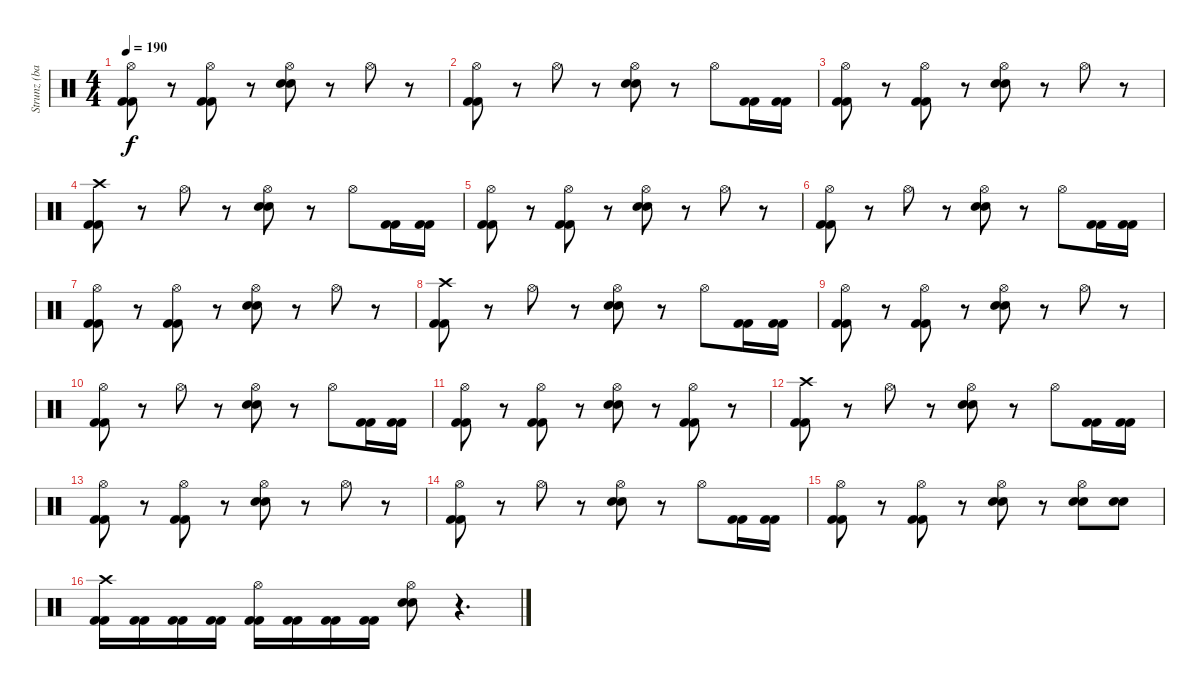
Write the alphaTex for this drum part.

\track ("Strunz (bateria)" "Strunz (ba") {instrument percussion}
\staff {score}
\articulation defaults
\ts (4 4)
\tempo 190
\clef neutral
\ks c
("Hi-Hat (open)" "Kick (hit) 2" "Kick (hit) 2").8{dy f} r.8 ("Hi-Hat (open)" "Kick (hit) 2" "Kick (hit) 2").8 r.8 ("Hi-Hat (open)" "Snare (hit) 2" "Snare (hit) 2").8 r.8 "Hi-Hat (open)".8 r.8 |
("Hi-Hat (open)" "Kick (hit) 2" "Kick (hit) 2").8 r.8 "Hi-Hat (open)".8 r.8 ("Hi-Hat (open)" "Snare (hit) 2" "Snare (hit) 2").8 r.8 "Hi-Hat (open)".8 ("Kick (hit) 2" "Kick (hit) 2").16 ("Kick (hit) 2" "Kick (hit) 2").16 |
("Hi-Hat (open)" "Kick (hit) 2" "Kick (hit) 2").8 r.8 ("Hi-Hat (open)" "Kick (hit) 2" "Kick (hit) 2").8 r.8 ("Hi-Hat (open)" "Snare (hit) 2" "Snare (hit) 2").8 r.8 "Hi-Hat (open)".8 r.8 |
("Crash high (hit)" "Kick (hit) 2" "Kick (hit) 2").8 r.8 "Hi-Hat (open)".8 r.8 ("Hi-Hat (open)" "Snare (hit) 2" "Snare (hit) 2").8 r.8 "Hi-Hat (open)".8 ("Kick (hit) 2" "Kick (hit) 2").16 ("Kick (hit) 2" "Kick (hit) 2").16 |
("Hi-Hat (open)" "Kick (hit) 2" "Kick (hit) 2").8 r.8 ("Hi-Hat (open)" "Kick (hit) 2" "Kick (hit) 2").8 r.8 ("Hi-Hat (open)" "Snare (hit) 2" "Snare (hit) 2").8 r.8 "Hi-Hat (open)".8 r.8 |
("Hi-Hat (open)" "Kick (hit) 2" "Kick (hit) 2").8 r.8 "Hi-Hat (open)".8 r.8 ("Hi-Hat (open)" "Snare (hit) 2" "Snare (hit) 2").8 r.8 "Hi-Hat (open)".8 ("Kick (hit) 2" "Kick (hit) 2").16 ("Kick (hit) 2" "Kick (hit) 2").16 |
("Hi-Hat (open)" "Kick (hit) 2" "Kick (hit) 2").8 r.8 ("Hi-Hat (open)" "Kick (hit) 2" "Kick (hit) 2").8 r.8 ("Hi-Hat (open)" "Snare (hit) 2" "Snare (hit) 2").8 r.8 "Hi-Hat (open)".8 r.8 |
("Crash high (hit)" "Kick (hit) 2" "Kick (hit) 2").8 r.8 "Hi-Hat (open)".8 r.8 ("Hi-Hat (open)" "Snare (hit) 2" "Snare (hit) 2").8 r.8 "Hi-Hat (open)".8 ("Kick (hit) 2" "Kick (hit) 2").16 ("Kick (hit) 2" "Kick (hit) 2").16 |
("Hi-Hat (open)" "Kick (hit) 2" "Kick (hit) 2").8 r.8 ("Hi-Hat (open)" "Kick (hit) 2" "Kick (hit) 2").8 r.8 ("Hi-Hat (open)" "Snare (hit) 2" "Snare (hit) 2").8 r.8 "Hi-Hat (open)".8 r.8 |
("Hi-Hat (open)" "Kick (hit) 2" "Kick (hit) 2").8 r.8 "Hi-Hat (open)".8 r.8 ("Hi-Hat (open)" "Snare (hit) 2" "Snare (hit) 2").8 r.8 "Hi-Hat (open)".8 ("Kick (hit) 2" "Kick (hit) 2").16 ("Kick (hit) 2" "Kick (hit) 2").16 |
("Hi-Hat (open)" "Kick (hit) 2" "Kick (hit) 2").8 r.8 ("Hi-Hat (open)" "Kick (hit) 2" "Kick (hit) 2").8 r.8 ("Hi-Hat (open)" "Snare (hit) 2" "Snare (hit) 2").8 r.8 ("Hi-Hat (open)" "Kick (hit) 2" "Kick (hit) 2").8 r.8 |
("Crash high (hit)" "Kick (hit) 2" "Kick (hit) 2").8 r.8 "Hi-Hat (open)".8 r.8 ("Hi-Hat (open)" "Snare (hit) 2" "Snare (hit) 2").8 r.8 "Hi-Hat (open)".8 ("Kick (hit) 2" "Kick (hit) 2").16 ("Kick (hit) 2" "Kick (hit) 2").16 |
("Hi-Hat (open)" "Kick (hit) 2" "Kick (hit) 2").8 r.8 ("Hi-Hat (open)" "Kick (hit) 2" "Kick (hit) 2").8 r.8 ("Hi-Hat (open)" "Snare (hit) 2" "Snare (hit) 2").8 r.8 "Hi-Hat (open)".8 r.8 |
("Hi-Hat (open)" "Kick (hit) 2" "Kick (hit) 2").8 r.8 "Hi-Hat (open)".8 r.8 ("Hi-Hat (open)" "Snare (hit) 2" "Snare (hit) 2").8 r.8 "Hi-Hat (open)".8 ("Kick (hit) 2" "Kick (hit) 2").16 ("Kick (hit) 2" "Kick (hit) 2").16 |
("Hi-Hat (open)" "Kick (hit) 2" "Kick (hit) 2").8 r.8 ("Hi-Hat (open)" "Kick (hit) 2" "Kick (hit) 2").8 r.8 ("Hi-Hat (open)" "Snare (hit) 2" "Snare (hit) 2").8 r.8 ("Hi-Hat (open)" "Snare (hit) 2" "Snare (hit) 2").8 ("Snare (hit) 2" "Snare (hit) 2").8 |
\section ("" "")
("Crash high (hit)" "Kick (hit) 2" "Kick (hit) 2").16 ("Kick (hit) 2" "Kick (hit) 2").16 ("Kick (hit) 2" "Kick (hit) 2").16 ("Kick (hit) 2" "Kick (hit) 2").16 ("Hi-Hat (open)" "Kick (hit) 2" "Kick (hit) 2").16 ("Kick (hit) 2" "Kick (hit) 2").16 ("Kick (hit) 2" "Kick (hit) 2").16 ("Kick (hit) 2" "Kick (hit) 2").16 ("Hi-Hat (open)" "Snare (hit) 2" "Snare (hit) 2").8 r.4{d}
